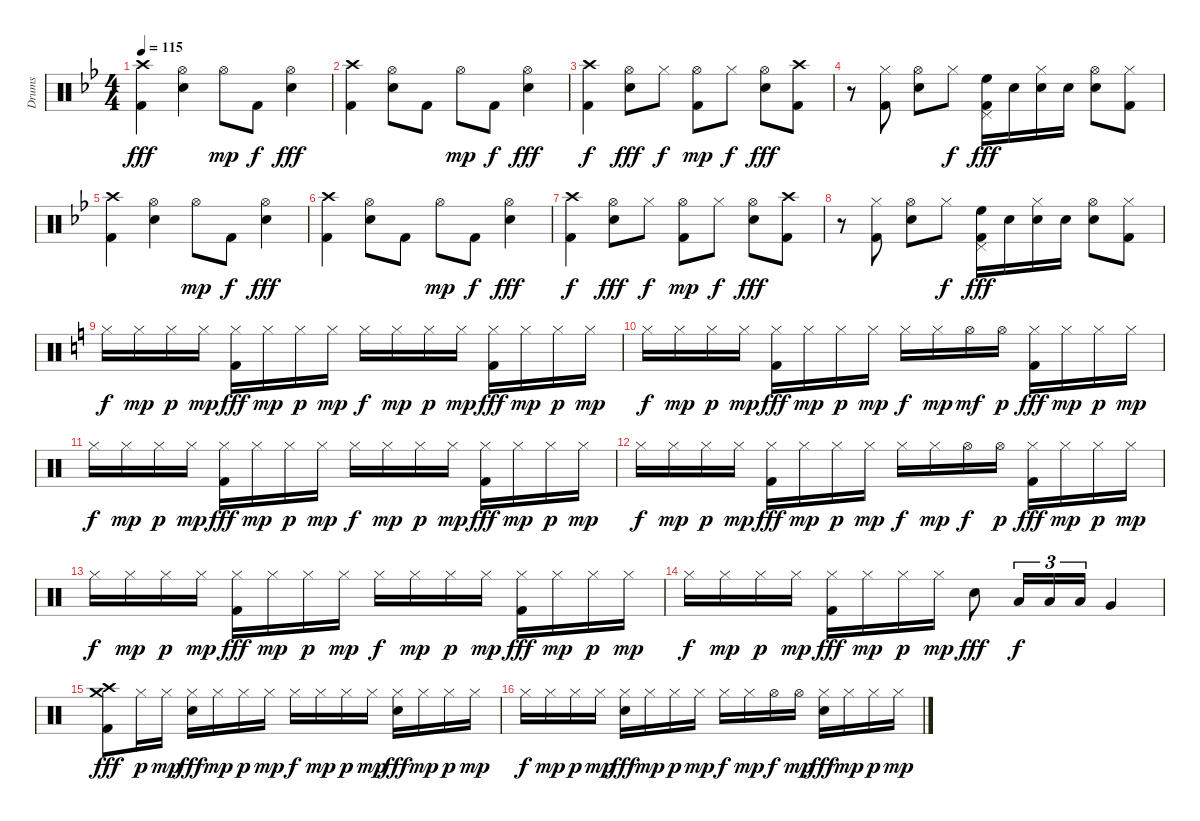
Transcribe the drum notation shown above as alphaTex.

\track ("Drums" "Drums") {instrument percussion}
\staff {score}
\articulation defaults
\ts (4 4)
\tempo 115
\clef neutral
\ks bb
("Crash high (hit)" "Kick (hit) 2").4{dy fff} ("Hi-Hat (open)" "Electric Snare (hit)").4 "Hi-Hat (open)".8{dy mp} "Kick (hit) 2".8{dy f} ("Hi-Hat (open)" "Electric Snare (hit)").4{dy fff} |
("Crash high (hit)" "Kick (hit) 2").4 ("Hi-Hat (open)" "Electric Snare (hit)").8 "Kick (hit) 2".8 "Hi-Hat (open)".8{dy mp} "Kick (hit) 2".8{dy f} ("Hi-Hat (open)" "Electric Snare (hit)").4{dy fff} |
("Crash high (hit)" "Kick (hit) 2").4{dy f} ("Hi-Hat (open)" "Electric Snare (hit)").8{dy fff} "Hi-Hat (closed)".8{dy f} ("Hi-Hat (open)" "Kick (hit) 2").8{dy mp} "Hi-Hat (closed)".8{dy f} ("Hi-Hat (open)" "Electric Snare (hit)").8{dy fff} ("Crash high (hit)" "Kick (hit) 2").8 |
r.8 ("Hi-Hat (closed)" "Kick (hit) 2").8 ("Hi-Hat (open)" "Electric Snare (hit)").8 "Hi-Hat (closed)".8{dy f} ("Pedal Hi-Hat (hit)" "High Floor Tom (hit)" "Kick (hit) 2").16{dy fff} "Electric Snare (hit)".16 ("Hi-Hat (closed)" "Electric Snare (hit)").16 "Electric Snare (hit)".16 ("Hi-Hat (open)" "Electric Snare (hit)").8 ("Hi-Hat (closed)" "Kick (hit) 2").8 |
("Crash high (hit)" "Kick (hit) 2").4 ("Hi-Hat (open)" "Electric Snare (hit)").4 "Hi-Hat (open)".8{dy mp} "Kick (hit) 2".8{dy f} ("Hi-Hat (open)" "Electric Snare (hit)").4{dy fff} |
("Crash high (hit)" "Kick (hit) 2").4 ("Hi-Hat (open)" "Electric Snare (hit)").8 "Kick (hit) 2".8 "Hi-Hat (open)".8{dy mp} "Kick (hit) 2".8{dy f} ("Hi-Hat (open)" "Electric Snare (hit)").4{dy fff} |
("Crash high (hit)" "Kick (hit) 2").4{dy f} ("Hi-Hat (open)" "Electric Snare (hit)").8{dy fff} "Hi-Hat (closed)".8{dy f} ("Hi-Hat (open)" "Kick (hit) 2").8{dy mp} "Hi-Hat (closed)".8{dy f} ("Hi-Hat (open)" "Electric Snare (hit)").8{dy fff} ("Crash high (hit)" "Kick (hit) 2").8 |
r.8 ("Hi-Hat (closed)" "Kick (hit) 2").8 ("Hi-Hat (open)" "Electric Snare (hit)").8 "Hi-Hat (closed)".8{dy f} ("Pedal Hi-Hat (hit)" "High Floor Tom (hit)" "Kick (hit) 2").16{dy fff} "Electric Snare (hit)".16 ("Hi-Hat (closed)" "Electric Snare (hit)").16 "Electric Snare (hit)".16 ("Hi-Hat (open)" "Electric Snare (hit)").8 ("Hi-Hat (closed)" "Kick (hit) 2").8 |
\ks c "Hi-Hat (closed)".16{dy f} "Hi-Hat (closed)".16{dy mp} "Hi-Hat (closed)".16{dy p} "Hi-Hat (closed)".16{dy mp}
("Hi-Hat (closed)" "Kick (hit) 2").16{dy fff} "Hi-Hat (closed)".16{dy mp} "Hi-Hat (closed)".16{dy p} "Hi-Hat (closed)".16{dy mp} "Hi-Hat (closed)".16{dy f} "Hi-Hat (closed)".16{dy mp} "Hi-Hat (closed)".16{dy p} "Hi-Hat (closed)".16{dy mp} ("Hi-Hat (closed)" "Kick (hit) 2").16{dy fff} "Hi-Hat (closed)".16{dy mp} "Hi-Hat (closed)".16{dy p} "Hi-Hat (closed)".16{dy mp} |
"Hi-Hat (closed)".16{dy f} "Hi-Hat (closed)".16{dy mp} "Hi-Hat (closed)".16{dy p} "Hi-Hat (closed)".16{dy mp} ("Hi-Hat (closed)" "Kick (hit) 2").16{dy fff} "Hi-Hat (closed)".16{dy mp} "Hi-Hat (closed)".16{dy p} "Hi-Hat (closed)".16{dy mp} "Hi-Hat (closed)".16{dy f} "Hi-Hat (closed)".16{dy mp} "Hi-Hat (open)".16{dy mf} "Hi-Hat (open)".16{dy p} ("Hi-Hat (closed)" "Kick (hit) 2").16{dy fff} "Hi-Hat (closed)".16{dy mp} "Hi-Hat (closed)".16{dy p} "Hi-Hat (closed)".16{dy mp} |
"Hi-Hat (closed)".16{dy f} "Hi-Hat (closed)".16{dy mp} "Hi-Hat (closed)".16{dy p} "Hi-Hat (closed)".16{dy mp} ("Hi-Hat (closed)" "Kick (hit) 2").16{dy fff} "Hi-Hat (closed)".16{dy mp} "Hi-Hat (closed)".16{dy p} "Hi-Hat (closed)".16{dy mp} "Hi-Hat (closed)".16{dy f} "Hi-Hat (closed)".16{dy mp} "Hi-Hat (closed)".16{dy p} "Hi-Hat (closed)".16{dy mp} ("Hi-Hat (closed)" "Kick (hit) 2").16{dy fff} "Hi-Hat (closed)".16{dy mp} "Hi-Hat (closed)".16{dy p} "Hi-Hat (closed)".16{dy mp} |
"Hi-Hat (closed)".16{dy f} "Hi-Hat (closed)".16{dy mp} "Hi-Hat (closed)".16{dy p} "Hi-Hat (closed)".16{dy mp} ("Hi-Hat (closed)" "Kick (hit) 2").16{dy fff} "Hi-Hat (closed)".16{dy mp} "Hi-Hat (closed)".16{dy p} "Hi-Hat (closed)".16{dy mp} "Hi-Hat (closed)".16{dy f} "Hi-Hat (closed)".16{dy mp} "Hi-Hat (open)".16{dy f} "Hi-Hat (open)".16{dy p} ("Hi-Hat (closed)" "Kick (hit) 2").16{dy fff} "Hi-Hat (closed)".16{dy mp} "Hi-Hat (closed)".16{dy p} "Hi-Hat (closed)".16{dy mp} |
"Hi-Hat (closed)".16{dy f} "Hi-Hat (closed)".16{dy mp} "Hi-Hat (closed)".16{dy p} "Hi-Hat (closed)".16{dy mp} ("Hi-Hat (closed)" "Kick (hit) 2").16{dy fff} "Hi-Hat (closed)".16{dy mp} "Hi-Hat (closed)".16{dy p} "Hi-Hat (closed)".16{dy mp} "Hi-Hat (closed)".16{dy f} "Hi-Hat (closed)".16{dy mp} "Hi-Hat (closed)".16{dy p} "Hi-Hat (closed)".16{dy mp} ("Hi-Hat (closed)" "Kick (hit) 2").16{dy fff} "Hi-Hat (closed)".16{dy mp} "Hi-Hat (closed)".16{dy p} "Hi-Hat (closed)".16{dy mp} |
"Hi-Hat (closed)".16{dy f} "Hi-Hat (closed)".16{dy mp} "Hi-Hat (closed)".16{dy p} "Hi-Hat (closed)".16{dy mp} ("Hi-Hat (closed)" "Kick (hit) 2").16{dy fff} "Hi-Hat (closed)".16{dy mp} "Hi-Hat (closed)".16{dy p} "Hi-Hat (closed)".16{dy mp} "Electric Snare (hit)".8{dy fff} "Low Tom (hit)".16{tu (3 2) dy f} "Low Tom (hit)".16{tu (3 2)} "Low Tom (hit)".16{tu (3 2)} "Very Low Tom (hit)".4 |
("Crash medium (hit)" "Crash high (hit)" "Kick (hit) 2").8{dy fff} "Hi-Hat (closed)".16{dy p} "Hi-Hat (closed)".16{dy mp} ("Hi-Hat (closed)" "Electric Snare (hit)").16{dy fff} "Hi-Hat (closed)".16{dy mp} "Hi-Hat (closed)".16{dy p} "Hi-Hat (closed)".16{dy mp} "Hi-Hat (closed)".16{dy f} "Hi-Hat (closed)".16{dy mp} "Hi-Hat (closed)".16{dy p} "Hi-Hat (closed)".16{dy mp} ("Hi-Hat (closed)" "Electric Snare (hit)").16{dy fff} "Hi-Hat (closed)".16{dy mp} "Hi-Hat (closed)".16{dy p} "Hi-Hat (closed)".16{dy mp} |
"Hi-Hat (closed)".16{dy f} "Hi-Hat (closed)".16{dy mp} "Hi-Hat (closed)".16{dy p} "Hi-Hat (closed)".16{dy mp} ("Hi-Hat (closed)" "Electric Snare (hit)").16{dy fff} "Hi-Hat (closed)".16{dy mp} "Hi-Hat (closed)".16{dy p} "Hi-Hat (closed)".16{dy mp} "Hi-Hat (closed)".16{dy f} "Hi-Hat (closed)".16{dy mp} "Hi-Hat (open)".16{dy f} "Hi-Hat (open)".16{dy mp} ("Hi-Hat (closed)" "Electric Snare (hit)").16{dy fff} "Hi-Hat (closed)".16{dy mp} "Hi-Hat (closed)".16{dy p} "Hi-Hat (closed)".16{dy mp}
